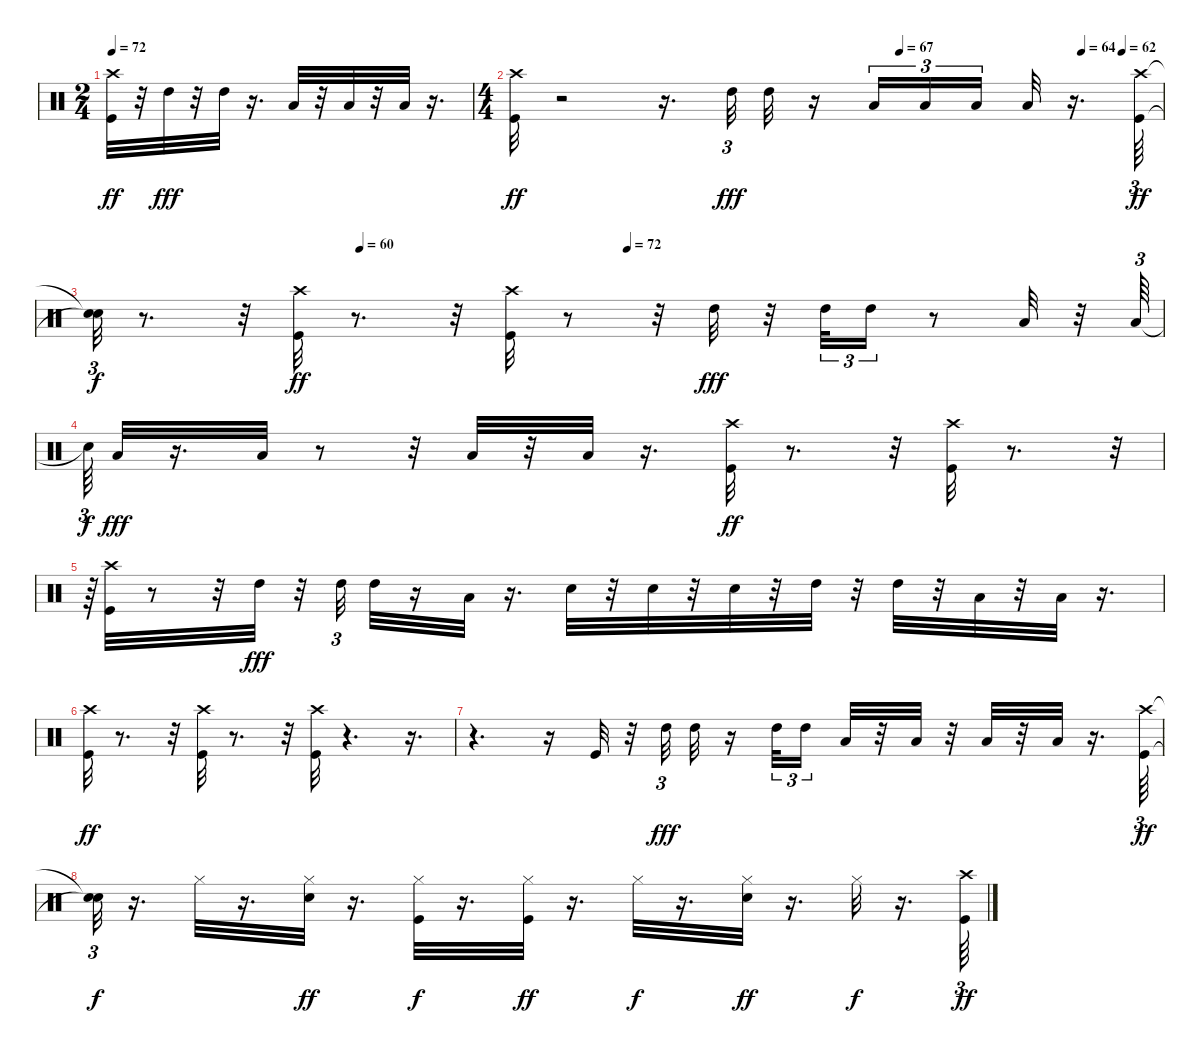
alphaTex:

\track (" " " ") {instrument percussion}
\staff {score}
\articulation defaults
\ts (2 4)
\tempo 72
\clef neutral
\ks c
("Kick (hit)" "Crash high (hit)").32{dy ff} r.32 "High Tom (hit)".32{dy fff} r.32 "High Tom (hit)".32 r.16{d} "Low Tom (hit)".32 r.32 "Low Tom (hit)".32 r.32 "Low Floor Tom (hit)".32 r.16{d} |
\ts (4 4)
\tempo (67 0.59375)
\tempo (64 0.875)
\tempo (62 0.9375)
("Kick (hit)" "Crash high (hit)").32{dy ff} r.2 r.16{d} "High Tom (hit)".32{tu (3 2) dy fff} "High Tom (hit)".32 r.16 "Low Tom (hit)".16{tu (3 2)} "Low Tom (hit)".16{tu (3 2)} "Low Tom (hit)".16{tu (3 2) beam splitsecondary} "Low Floor Tom (hit)".32 r.16{d} ("Kick (hit)" "Crash high (hit)").64{tu (3 2) dy ff} |
\tempo (60 0.25)
\tempo (72 0.5)
("Snare (hit)"{t} "Snare (hit)"{t}).32{tu (3 2) dy f} r.8{d} r.32 ("Kick (hit)" "Crash high (hit)").32{dy ff} r.8{d} r.32 ("Kick (hit)" "Crash high (hit)").32 r.8 r.32 "High Tom (hit)".32{dy fff} r.32 "High Tom (hit)".32{tu (3 2)} "High Tom (hit)".16{tu (3 2)} r.8 "Low Tom (hit)".32 r.32 "Low Tom (hit)".64{tu (3 2)} |
"Snare (hit)"{t}.64{tu (3 2) dy f} "Low Tom (hit)".32{dy fff} r.16{d} "Low Tom (hit)".32 r.8 r.32 "Low Floor Tom (hit)".32 r.32 "Low Floor Tom (hit)".32 r.16{d} ("Kick (hit)" "Crash high (hit)").32{dy ff} r.8{d} r.32 ("Kick (hit)" "Crash high (hit)").32 r.8{d} r.32{tu (3 2)} |
r.64{tu (3 2)} ("Kick (hit)" "Crash high (hit)").32 r.8 r.32 "High Tom (hit)".32{dy fff} r.32 "High Tom (hit)".32{tu (3 2)} "High Tom (hit)".32 r.16 "Low Tom (hit)".32 r.16{d} "Electric Snare (hit)".32 r.32 "Electric Snare (hit)".32 r.32 "Electric Snare (hit)".32 r.32 "High Tom (hit)".32 r.32 "High Tom (hit)".32 r.32 "Low Tom (hit)".32 r.32 "Low Floor Tom (hit)".32 r.16{d} |
("Kick (hit)" "Crash high (hit)").32{dy ff} r.8{d} r.32 ("Kick (hit)" "Crash high (hit)").32 r.8{d} r.32 ("Kick (hit)" "Crash high (hit)").32 r.4{d} r.16{d} |
r.4{d} r.16 "Kick (hit)".32 r.32 "High Tom (hit)".32{tu (3 2) dy fff} "High Tom (hit)".32 r.16 "High Tom (hit)".32{tu (3 2)} "High Tom (hit)".16{tu (3 2) beam splitsecondary} "Low Tom (hit)".32 r.32 "Low Tom (hit)".32 r.32 "Low Tom (hit)".32 r.32 "Low Floor Tom (hit)".32 r.16{d} ("Kick (hit)" "Crash high (hit)").64{tu (3 2) dy ff} |
("Snare (hit)"{t} "Snare (hit)"{t}).32{tu (3 2) dy f} r.16{d} "Hi-Hat (closed)".32 r.16{d} ("Electric Snare (hit)" "Hi-Hat (closed)").32{dy ff} r.16{d} ("Kick (hit)" "Hi-Hat (closed)").32{dy f} r.16{d} ("Kick (hit)" "Hi-Hat (closed)").32{dy ff} r.16{d} "Hi-Hat (closed)".32{dy f} r.16{d} ("Electric Snare (hit)" "Hi-Hat (closed)").32{dy ff} r.16{d} "Hi-Hat (closed)".32{dy f} r.16{d} ("Kick (hit)" "Crash high (hit)").64{tu (3 2) dy ff}
